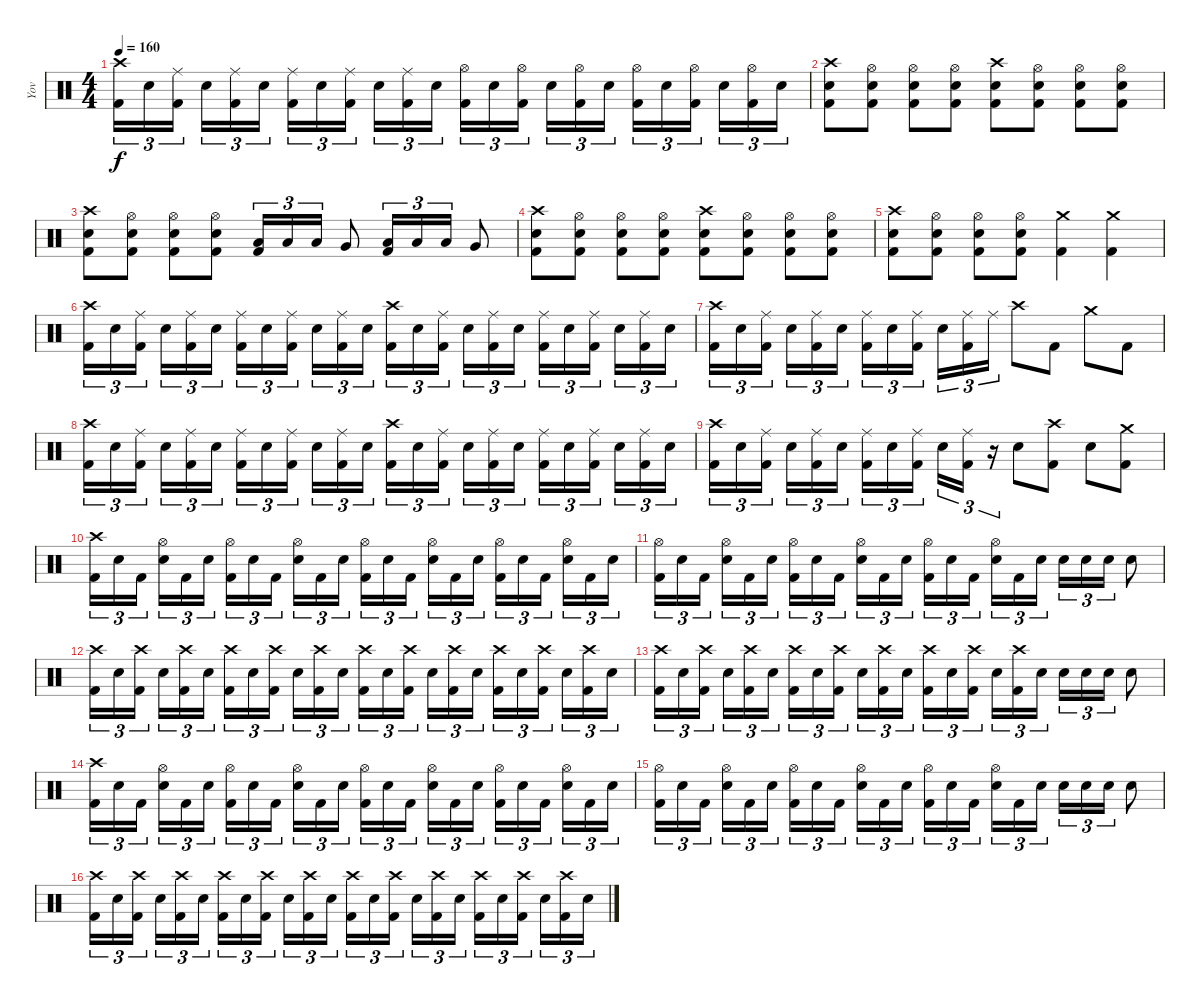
\track ("Yov" "Yov") {instrument percussion}
\staff {score}
\articulation defaults
\ts (4 4)
\tempo 160
\clef neutral
\ks c
("Crash high (hit)" "Kick (hit) 2").16{tu (3 2) dy f} "Electric Snare (hit)".16{tu (3 2)} ("Ride (middle)" "Kick (hit) 2").16{tu (3 2) beam splitsecondary} "Electric Snare (hit)".16{tu (3 2)} ("Ride (middle)" "Kick (hit) 2").16{tu (3 2)} "Electric Snare (hit)".16{tu (3 2)} ("Ride (middle)" "Kick (hit) 2").16{tu (3 2)} "Electric Snare (hit)".16{tu (3 2)} ("Ride (middle)" "Kick (hit) 2").16{tu (3 2) beam splitsecondary} "Electric Snare (hit)".16{tu (3 2)} ("Ride (middle)" "Kick (hit) 2").16{tu (3 2)} "Electric Snare (hit)".16{tu (3 2)} ("Hi-Hat (open)" "Kick (hit) 2").16{tu (3 2)} "Electric Snare (hit)".16{tu (3 2)} ("Hi-Hat (open)" "Kick (hit) 2").16{tu (3 2) beam splitsecondary} "Electric Snare (hit)".16{tu (3 2)} ("Hi-Hat (open)" "Kick (hit) 2").16{tu (3 2)} "Electric Snare (hit)".16{tu (3 2)} ("Hi-Hat (open)" "Kick (hit) 2").16{tu (3 2)} "Electric Snare (hit)".16{tu (3 2)} ("Hi-Hat (open)" "Kick (hit) 2").16{tu (3 2) beam splitsecondary} "Electric Snare (hit)".16{tu (3 2)} ("Hi-Hat (open)" "Kick (hit) 2").16{tu (3 2)} "Electric Snare (hit)".16{tu (3 2)} |
("Crash high (hit)" "Electric Snare (hit)" "Kick (hit) 2").8 ("Hi-Hat (open)" "Electric Snare (hit)" "Kick (hit) 2").8 ("Hi-Hat (open)" "Electric Snare (hit)" "Kick (hit) 2").8 ("Hi-Hat (open)" "Electric Snare (hit)" "Kick (hit) 2").8 ("Crash high (hit)" "Electric Snare (hit)" "Kick (hit) 2").8 ("Hi-Hat (open)" "Electric Snare (hit)" "Kick (hit) 2").8 ("Hi-Hat (open)" "Electric Snare (hit)" "Kick (hit) 2").8 ("Hi-Hat (open)" "Electric Snare (hit)" "Kick (hit) 2").8 |
("Crash high (hit)" "Electric Snare (hit)" "Kick (hit) 2").8 ("Hi-Hat (open)" "Electric Snare (hit)" "Kick (hit) 2").8 ("Hi-Hat (open)" "Electric Snare (hit)" "Kick (hit) 2").8 ("Hi-Hat (open)" "Electric Snare (hit)" "Kick (hit) 2").8 ("Low Tom (hit)" "Kick (hit) 2").16{tu (3 2)} "Low Tom (hit)".16{tu (3 2)} "Low Tom (hit)".16{tu (3 2)} "Very Low Tom (hit)".8 ("Low Tom (hit)" "Kick (hit) 2").16{tu (3 2)} "Low Tom (hit)".16{tu (3 2)} "Low Tom (hit)".16{tu (3 2)} "Very Low Tom (hit)".8 |
("Crash high (hit)" "Electric Snare (hit)" "Kick (hit) 2").8 ("Hi-Hat (open)" "Electric Snare (hit)" "Kick (hit) 2").8 ("Hi-Hat (open)" "Electric Snare (hit)" "Kick (hit) 2").8 ("Hi-Hat (open)" "Electric Snare (hit)" "Kick (hit) 2").8 ("Crash high (hit)" "Electric Snare (hit)" "Kick (hit) 2").8 ("Hi-Hat (open)" "Electric Snare (hit)" "Kick (hit) 2").8 ("Hi-Hat (open)" "Electric Snare (hit)" "Kick (hit) 2").8 ("Hi-Hat (open)" "Electric Snare (hit)" "Kick (hit) 2").8 |
("Crash high (hit)" "Electric Snare (hit)" "Kick (hit) 2").8 ("Hi-Hat (open)" "Electric Snare (hit)" "Kick (hit) 2").8 ("Hi-Hat (open)" "Electric Snare (hit)" "Kick (hit) 2").8 ("Hi-Hat (open)" "Electric Snare (hit)" "Kick (hit) 2").8 ("Crash medium (hit)" "Kick (hit) 2").4 ("Crash medium (hit)" "Kick (hit) 2").4 |
("Crash high (hit)" "Kick (hit) 2").16{tu (3 2)} "Electric Snare (hit)".16{tu (3 2)} ("Ride (middle)" "Kick (hit) 2").16{tu (3 2) beam splitsecondary} "Electric Snare (hit)".16{tu (3 2)} ("Ride (middle)" "Kick (hit) 2").16{tu (3 2)} "Electric Snare (hit)".16{tu (3 2)} ("Ride (middle)" "Kick (hit) 2").16{tu (3 2)} "Electric Snare (hit)".16{tu (3 2)} ("Ride (middle)" "Kick (hit) 2").16{tu (3 2) beam splitsecondary} "Electric Snare (hit)".16{tu (3 2)} ("Ride (middle)" "Kick (hit) 2").16{tu (3 2)} "Electric Snare (hit)".16{tu (3 2)} ("Crash high (hit)" "Kick (hit) 2").16{tu (3 2)} "Electric Snare (hit)".16{tu (3 2)} ("Ride (middle)" "Kick (hit) 2").16{tu (3 2) beam splitsecondary} "Electric Snare (hit)".16{tu (3 2)} ("Ride (middle)" "Kick (hit) 2").16{tu (3 2)} "Electric Snare (hit)".16{tu (3 2)} ("Ride (middle)" "Kick (hit) 2").16{tu (3 2)} "Electric Snare (hit)".16{tu (3 2)} ("Ride (middle)" "Kick (hit) 2").16{tu (3 2) beam splitsecondary} "Electric Snare (hit)".16{tu (3 2)} ("Ride (middle)" "Kick (hit) 2").16{tu (3 2)} "Electric Snare (hit)".16{tu (3 2)} |
("Crash high (hit)" "Kick (hit) 2").16{tu (3 2)} "Electric Snare (hit)".16{tu (3 2)} ("Ride (middle)" "Kick (hit) 2").16{tu (3 2) beam splitsecondary} "Electric Snare (hit)".16{tu (3 2)} ("Ride (middle)" "Kick (hit) 2").16{tu (3 2)} "Electric Snare (hit)".16{tu (3 2)} ("Ride (middle)" "Kick (hit) 2").16{tu (3 2)} "Electric Snare (hit)".16{tu (3 2)} ("Ride (middle)" "Kick (hit) 2").16{tu (3 2) beam splitsecondary} "Electric Snare (hit)".16{tu (3 2)} ("Ride (middle)" "Kick (hit) 2").16{tu (3 2)} "Ride (middle)".16{tu (3 2)} "Crash high (hit)".8 "Kick (hit) 2".8 "Crash medium (hit)".8 "Kick (hit) 2".8 |
("Crash high (hit)" "Kick (hit) 2").16{tu (3 2)} "Electric Snare (hit)".16{tu (3 2)} ("Ride (middle)" "Kick (hit) 2").16{tu (3 2) beam splitsecondary} "Electric Snare (hit)".16{tu (3 2)} ("Ride (middle)" "Kick (hit) 2").16{tu (3 2)} "Electric Snare (hit)".16{tu (3 2)} ("Ride (middle)" "Kick (hit) 2").16{tu (3 2)} "Electric Snare (hit)".16{tu (3 2)} ("Ride (middle)" "Kick (hit) 2").16{tu (3 2) beam splitsecondary} "Electric Snare (hit)".16{tu (3 2)} ("Ride (middle)" "Kick (hit) 2").16{tu (3 2)} "Electric Snare (hit)".16{tu (3 2)} ("Crash high (hit)" "Kick (hit) 2").16{tu (3 2)} "Electric Snare (hit)".16{tu (3 2)} ("Ride (middle)" "Kick (hit) 2").16{tu (3 2) beam splitsecondary} "Electric Snare (hit)".16{tu (3 2)} ("Ride (middle)" "Kick (hit) 2").16{tu (3 2)} "Electric Snare (hit)".16{tu (3 2)} ("Ride (middle)" "Kick (hit) 2").16{tu (3 2)} "Electric Snare (hit)".16{tu (3 2)} ("Ride (middle)" "Kick (hit) 2").16{tu (3 2) beam splitsecondary} "Electric Snare (hit)".16{tu (3 2)} ("Ride (middle)" "Kick (hit) 2").16{tu (3 2)} "Electric Snare (hit)".16{tu (3 2)} |
("Crash high (hit)" "Kick (hit) 2").16{tu (3 2)} "Electric Snare (hit)".16{tu (3 2)} ("Ride (middle)" "Kick (hit) 2").16{tu (3 2) beam splitsecondary} "Electric Snare (hit)".16{tu (3 2)} ("Ride (middle)" "Kick (hit) 2").16{tu (3 2)} "Electric Snare (hit)".16{tu (3 2)} ("Ride (middle)" "Kick (hit) 2").16{tu (3 2)} "Electric Snare (hit)".16{tu (3 2)} ("Ride (middle)" "Kick (hit) 2").16{tu (3 2) beam splitsecondary} "Electric Snare (hit)".16{tu (3 2)} ("Ride (middle)" "Kick (hit) 2").16{tu (3 2)} r.16{tu (3 2)} "Electric Snare (hit)".8 ("Crash high (hit)" "Kick (hit) 2").8 "Electric Snare (hit)".8 ("Crash medium (hit)" "Kick (hit) 2").8 |
("Crash high (hit)" "Kick (hit) 2").16{tu (3 2)} "Electric Snare (hit)".16{tu (3 2)} "Kick (hit) 2".16{tu (3 2) beam splitsecondary} ("Hi-Hat (open)" "Electric Snare (hit)").16{tu (3 2)} "Kick (hit) 2".16{tu (3 2)} "Electric Snare (hit)".16{tu (3 2)} ("Hi-Hat (open)" "Kick (hit) 2").16{tu (3 2)} "Electric Snare (hit)".16{tu (3 2)} "Kick (hit) 2".16{tu (3 2) beam splitsecondary} ("Hi-Hat (open)" "Electric Snare (hit)").16{tu (3 2)} "Kick (hit) 2".16{tu (3 2)} "Electric Snare (hit)".16{tu (3 2)} ("Hi-Hat (open)" "Kick (hit) 2").16{tu (3 2)} "Electric Snare (hit)".16{tu (3 2)} "Kick (hit) 2".16{tu (3 2) beam splitsecondary} ("Hi-Hat (open)" "Electric Snare (hit)").16{tu (3 2)} "Kick (hit) 2".16{tu (3 2)} "Electric Snare (hit)".16{tu (3 2)} ("Hi-Hat (open)" "Kick (hit) 2").16{tu (3 2)} "Electric Snare (hit)".16{tu (3 2)} "Kick (hit) 2".16{tu (3 2) beam splitsecondary} ("Hi-Hat (open)" "Electric Snare (hit)").16{tu (3 2)} "Kick (hit) 2".16{tu (3 2)} "Electric Snare (hit)".16{tu (3 2)} |
("Hi-Hat (open)" "Kick (hit) 2").16{tu (3 2)} "Electric Snare (hit)".16{tu (3 2)} "Kick (hit) 2".16{tu (3 2) beam splitsecondary} ("Hi-Hat (open)" "Electric Snare (hit)").16{tu (3 2)} "Kick (hit) 2".16{tu (3 2)} "Electric Snare (hit)".16{tu (3 2)} ("Hi-Hat (open)" "Kick (hit) 2").16{tu (3 2)} "Electric Snare (hit)".16{tu (3 2)} "Kick (hit) 2".16{tu (3 2) beam splitsecondary} ("Hi-Hat (open)" "Electric Snare (hit)").16{tu (3 2)} "Kick (hit) 2".16{tu (3 2)} "Electric Snare (hit)".16{tu (3 2)} ("Hi-Hat (open)" "Kick (hit) 2").16{tu (3 2)} "Electric Snare (hit)".16{tu (3 2)} "Kick (hit) 2".16{tu (3 2) beam splitsecondary} ("Hi-Hat (open)" "Electric Snare (hit)").16{tu (3 2)} "Kick (hit) 2".16{tu (3 2)} "Electric Snare (hit)".16{tu (3 2)} "Electric Snare (hit)".16{tu (3 2)} "Electric Snare (hit)".16{tu (3 2)} "Electric Snare (hit)".16{tu (3 2)} "Electric Snare (hit)".8 |
("Crash high (hit)" "Kick (hit) 2").16{tu (3 2)} "Electric Snare (hit)".16{tu (3 2)} ("Crash high (hit)" "Kick (hit) 2").16{tu (3 2) beam splitsecondary} "Electric Snare (hit)".16{tu (3 2)} ("Crash high (hit)" "Kick (hit) 2").16{tu (3 2)} "Electric Snare (hit)".16{tu (3 2)} ("Crash high (hit)" "Kick (hit) 2").16{tu (3 2)} "Electric Snare (hit)".16{tu (3 2)} ("Crash high (hit)" "Kick (hit) 2").16{tu (3 2) beam splitsecondary} "Electric Snare (hit)".16{tu (3 2)} ("Crash high (hit)" "Kick (hit) 2").16{tu (3 2)} "Electric Snare (hit)".16{tu (3 2)} ("Crash high (hit)" "Kick (hit) 2").16{tu (3 2)} "Electric Snare (hit)".16{tu (3 2)} ("Crash high (hit)" "Kick (hit) 2").16{tu (3 2) beam splitsecondary} "Electric Snare (hit)".16{tu (3 2)} ("Crash high (hit)" "Kick (hit) 2").16{tu (3 2)} "Electric Snare (hit)".16{tu (3 2)} ("Crash high (hit)" "Kick (hit) 2").16{tu (3 2)} "Electric Snare (hit)".16{tu (3 2)} ("Crash high (hit)" "Kick (hit) 2").16{tu (3 2) beam splitsecondary} "Electric Snare (hit)".16{tu (3 2)} ("Crash high (hit)" "Kick (hit) 2").16{tu (3 2)} "Electric Snare (hit)".16{tu (3 2)} |
("Crash high (hit)" "Kick (hit) 2").16{tu (3 2)} "Electric Snare (hit)".16{tu (3 2)} ("Crash high (hit)" "Kick (hit) 2").16{tu (3 2) beam splitsecondary} "Electric Snare (hit)".16{tu (3 2)} ("Crash high (hit)" "Kick (hit) 2").16{tu (3 2)} "Electric Snare (hit)".16{tu (3 2)} ("Crash high (hit)" "Kick (hit) 2").16{tu (3 2)} "Electric Snare (hit)".16{tu (3 2)} ("Crash high (hit)" "Kick (hit) 2").16{tu (3 2) beam splitsecondary} "Electric Snare (hit)".16{tu (3 2)} ("Crash high (hit)" "Kick (hit) 2").16{tu (3 2)} "Electric Snare (hit)".16{tu (3 2)} ("Crash high (hit)" "Kick (hit) 2").16{tu (3 2)} "Electric Snare (hit)".16{tu (3 2)} ("Crash high (hit)" "Kick (hit) 2").16{tu (3 2) beam splitsecondary} "Electric Snare (hit)".16{tu (3 2)} ("Crash high (hit)" "Kick (hit) 2").16{tu (3 2)} "Electric Snare (hit)".16{tu (3 2)} "Electric Snare (hit)".16{tu (3 2)} "Electric Snare (hit)".16{tu (3 2)} "Electric Snare (hit)".16{tu (3 2)} "Electric Snare (hit)".8 |
("Crash high (hit)" "Kick (hit) 2").16{tu (3 2)} "Electric Snare (hit)".16{tu (3 2)} "Kick (hit) 2".16{tu (3 2) beam splitsecondary} ("Hi-Hat (open)" "Electric Snare (hit)").16{tu (3 2)} "Kick (hit) 2".16{tu (3 2)} "Electric Snare (hit)".16{tu (3 2)} ("Hi-Hat (open)" "Kick (hit) 2").16{tu (3 2)} "Electric Snare (hit)".16{tu (3 2)} "Kick (hit) 2".16{tu (3 2) beam splitsecondary} ("Hi-Hat (open)" "Electric Snare (hit)").16{tu (3 2)} "Kick (hit) 2".16{tu (3 2)} "Electric Snare (hit)".16{tu (3 2)} ("Hi-Hat (open)" "Kick (hit) 2").16{tu (3 2)} "Electric Snare (hit)".16{tu (3 2)} "Kick (hit) 2".16{tu (3 2) beam splitsecondary} ("Hi-Hat (open)" "Electric Snare (hit)").16{tu (3 2)} "Kick (hit) 2".16{tu (3 2)} "Electric Snare (hit)".16{tu (3 2)} ("Hi-Hat (open)" "Kick (hit) 2").16{tu (3 2)} "Electric Snare (hit)".16{tu (3 2)} "Kick (hit) 2".16{tu (3 2) beam splitsecondary} ("Hi-Hat (open)" "Electric Snare (hit)").16{tu (3 2)} "Kick (hit) 2".16{tu (3 2)} "Electric Snare (hit)".16{tu (3 2)} |
("Hi-Hat (open)" "Kick (hit) 2").16{tu (3 2)} "Electric Snare (hit)".16{tu (3 2)} "Kick (hit) 2".16{tu (3 2) beam splitsecondary} ("Hi-Hat (open)" "Electric Snare (hit)").16{tu (3 2)} "Kick (hit) 2".16{tu (3 2)} "Electric Snare (hit)".16{tu (3 2)} ("Hi-Hat (open)" "Kick (hit) 2").16{tu (3 2)} "Electric Snare (hit)".16{tu (3 2)} "Kick (hit) 2".16{tu (3 2) beam splitsecondary} ("Hi-Hat (open)" "Electric Snare (hit)").16{tu (3 2)} "Kick (hit) 2".16{tu (3 2)} "Electric Snare (hit)".16{tu (3 2)} ("Hi-Hat (open)" "Kick (hit) 2").16{tu (3 2)} "Electric Snare (hit)".16{tu (3 2)} "Kick (hit) 2".16{tu (3 2) beam splitsecondary} ("Hi-Hat (open)" "Electric Snare (hit)").16{tu (3 2)} "Kick (hit) 2".16{tu (3 2)} "Electric Snare (hit)".16{tu (3 2)} "Electric Snare (hit)".16{tu (3 2)} "Electric Snare (hit)".16{tu (3 2)} "Electric Snare (hit)".16{tu (3 2)} "Electric Snare (hit)".8 |
("Crash high (hit)" "Kick (hit) 2").16{tu (3 2)} "Electric Snare (hit)".16{tu (3 2)} ("Crash high (hit)" "Kick (hit) 2").16{tu (3 2) beam splitsecondary} "Electric Snare (hit)".16{tu (3 2)} ("Crash high (hit)" "Kick (hit) 2").16{tu (3 2)} "Electric Snare (hit)".16{tu (3 2)} ("Crash high (hit)" "Kick (hit) 2").16{tu (3 2)} "Electric Snare (hit)".16{tu (3 2)} ("Crash high (hit)" "Kick (hit) 2").16{tu (3 2) beam splitsecondary} "Electric Snare (hit)".16{tu (3 2)} ("Crash high (hit)" "Kick (hit) 2").16{tu (3 2)} "Electric Snare (hit)".16{tu (3 2)} ("Crash high (hit)" "Kick (hit) 2").16{tu (3 2)} "Electric Snare (hit)".16{tu (3 2)} ("Crash high (hit)" "Kick (hit) 2").16{tu (3 2) beam splitsecondary} "Electric Snare (hit)".16{tu (3 2)} ("Crash high (hit)" "Kick (hit) 2").16{tu (3 2)} "Electric Snare (hit)".16{tu (3 2)} ("Crash high (hit)" "Kick (hit) 2").16{tu (3 2)} "Electric Snare (hit)".16{tu (3 2)} ("Crash high (hit)" "Kick (hit) 2").16{tu (3 2) beam splitsecondary} "Electric Snare (hit)".16{tu (3 2)} ("Crash high (hit)" "Kick (hit) 2").16{tu (3 2)} "Electric Snare (hit)".16{tu (3 2)}
